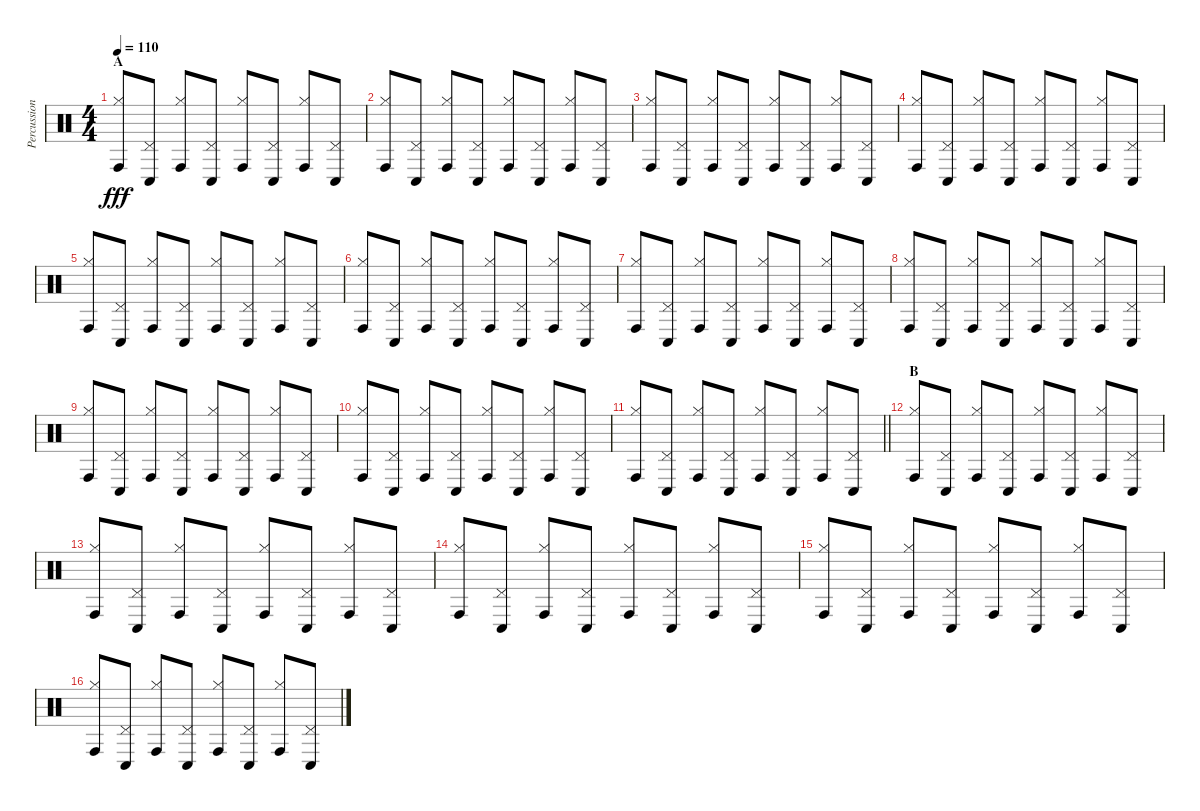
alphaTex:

\track ("Percussion" "Percussion") {instrument percussion}
\staff {score}
\articulation defaults
\ts (4 4)
\section ("" "A")
\tempo 110
\clef neutral
\ks c
("Hi-Hat (closed)" "Conga high (hit)").8{dy fff} ("Pedal Hi-Hat (hit)" "Conga low (hit)").8 ("Hi-Hat (closed)" "Conga high (hit)").8 ("Pedal Hi-Hat (hit)" "Conga low (hit)").8 ("Hi-Hat (closed)" "Conga high (hit)").8 ("Pedal Hi-Hat (hit)" "Conga low (hit)").8 ("Hi-Hat (closed)" "Conga high (hit)").8 ("Pedal Hi-Hat (hit)" "Conga low (hit)").8 |
("Hi-Hat (closed)" "Conga high (hit)").8 ("Pedal Hi-Hat (hit)" "Conga low (hit)").8 ("Hi-Hat (closed)" "Conga high (hit)").8 ("Pedal Hi-Hat (hit)" "Conga low (hit)").8 ("Hi-Hat (closed)" "Conga high (hit)").8 ("Pedal Hi-Hat (hit)" "Conga low (hit)").8 ("Hi-Hat (closed)" "Conga high (hit)").8 ("Pedal Hi-Hat (hit)" "Conga low (hit)").8 |
("Hi-Hat (closed)" "Conga high (hit)").8 ("Pedal Hi-Hat (hit)" "Conga low (hit)").8 ("Hi-Hat (closed)" "Conga high (hit)").8 ("Pedal Hi-Hat (hit)" "Conga low (hit)").8 ("Hi-Hat (closed)" "Conga high (hit)").8 ("Pedal Hi-Hat (hit)" "Conga low (hit)").8 ("Hi-Hat (closed)" "Conga high (hit)").8 ("Pedal Hi-Hat (hit)" "Conga low (hit)").8 |
("Hi-Hat (closed)" "Conga high (hit)").8 ("Pedal Hi-Hat (hit)" "Conga low (hit)").8 ("Hi-Hat (closed)" "Conga high (hit)").8 ("Pedal Hi-Hat (hit)" "Conga low (hit)").8 ("Hi-Hat (closed)" "Conga high (hit)").8 ("Pedal Hi-Hat (hit)" "Conga low (hit)").8 ("Hi-Hat (closed)" "Conga high (hit)").8 ("Pedal Hi-Hat (hit)" "Conga low (hit)").8 |
("Hi-Hat (closed)" "Conga high (hit)").8 ("Pedal Hi-Hat (hit)" "Conga low (hit)").8 ("Hi-Hat (closed)" "Conga high (hit)").8 ("Pedal Hi-Hat (hit)" "Conga low (hit)").8 ("Hi-Hat (closed)" "Conga high (hit)").8 ("Pedal Hi-Hat (hit)" "Conga low (hit)").8 ("Hi-Hat (closed)" "Conga high (hit)").8 ("Pedal Hi-Hat (hit)" "Conga low (hit)").8 |
("Hi-Hat (closed)" "Conga high (hit)").8 ("Pedal Hi-Hat (hit)" "Conga low (hit)").8 ("Hi-Hat (closed)" "Conga high (hit)").8 ("Pedal Hi-Hat (hit)" "Conga low (hit)").8 ("Hi-Hat (closed)" "Conga high (hit)").8 ("Pedal Hi-Hat (hit)" "Conga low (hit)").8 ("Hi-Hat (closed)" "Conga high (hit)").8 ("Pedal Hi-Hat (hit)" "Conga low (hit)").8 |
("Hi-Hat (closed)" "Conga high (hit)").8 ("Pedal Hi-Hat (hit)" "Conga low (hit)").8 ("Hi-Hat (closed)" "Conga high (hit)").8 ("Pedal Hi-Hat (hit)" "Conga low (hit)").8 ("Hi-Hat (closed)" "Conga high (hit)").8 ("Pedal Hi-Hat (hit)" "Conga low (hit)").8 ("Hi-Hat (closed)" "Conga high (hit)").8 ("Pedal Hi-Hat (hit)" "Conga low (hit)").8 |
("Hi-Hat (closed)" "Conga high (hit)").8 ("Pedal Hi-Hat (hit)" "Conga low (hit)").8 ("Hi-Hat (closed)" "Conga high (hit)").8 ("Pedal Hi-Hat (hit)" "Conga low (hit)").8 ("Hi-Hat (closed)" "Conga high (hit)").8 ("Pedal Hi-Hat (hit)" "Conga low (hit)").8 ("Hi-Hat (closed)" "Conga high (hit)").8 ("Pedal Hi-Hat (hit)" "Conga low (hit)").8 |
("Hi-Hat (closed)" "Conga high (hit)").8 ("Pedal Hi-Hat (hit)" "Conga low (hit)").8 ("Hi-Hat (closed)" "Conga high (hit)").8 ("Pedal Hi-Hat (hit)" "Conga low (hit)").8 ("Hi-Hat (closed)" "Conga high (hit)").8 ("Pedal Hi-Hat (hit)" "Conga low (hit)").8 ("Hi-Hat (closed)" "Conga high (hit)").8 ("Pedal Hi-Hat (hit)" "Conga low (hit)").8 |
("Hi-Hat (closed)" "Conga high (hit)").8 ("Pedal Hi-Hat (hit)" "Conga low (hit)").8 ("Hi-Hat (closed)" "Conga high (hit)").8 ("Pedal Hi-Hat (hit)" "Conga low (hit)").8 ("Hi-Hat (closed)" "Conga high (hit)").8 ("Pedal Hi-Hat (hit)" "Conga low (hit)").8 ("Hi-Hat (closed)" "Conga high (hit)").8 ("Pedal Hi-Hat (hit)" "Conga low (hit)").8 |
\barLineRight lightlight
("Hi-Hat (closed)" "Conga high (hit)").8 ("Pedal Hi-Hat (hit)" "Conga low (hit)").8 ("Hi-Hat (closed)" "Conga high (hit)").8 ("Pedal Hi-Hat (hit)" "Conga low (hit)").8 ("Hi-Hat (closed)" "Conga high (hit)").8 ("Pedal Hi-Hat (hit)" "Conga low (hit)").8 ("Hi-Hat (closed)" "Conga high (hit)").8 ("Pedal Hi-Hat (hit)" "Conga low (hit)").8 |
\section ("" "B")
("Hi-Hat (closed)" "Conga high (hit)").8 ("Pedal Hi-Hat (hit)" "Conga low (hit)").8 ("Hi-Hat (closed)" "Conga high (hit)").8 ("Pedal Hi-Hat (hit)" "Conga low (hit)").8 ("Hi-Hat (closed)" "Conga high (hit)").8 ("Pedal Hi-Hat (hit)" "Conga low (hit)").8 ("Hi-Hat (closed)" "Conga high (hit)").8 ("Pedal Hi-Hat (hit)" "Conga low (hit)").8 |
("Hi-Hat (closed)" "Conga high (hit)").8 ("Pedal Hi-Hat (hit)" "Conga low (hit)").8 ("Hi-Hat (closed)" "Conga high (hit)").8 ("Pedal Hi-Hat (hit)" "Conga low (hit)").8 ("Hi-Hat (closed)" "Conga high (hit)").8 ("Pedal Hi-Hat (hit)" "Conga low (hit)").8 ("Hi-Hat (closed)" "Conga high (hit)").8 ("Pedal Hi-Hat (hit)" "Conga low (hit)").8 |
("Hi-Hat (closed)" "Conga high (hit)").8 ("Pedal Hi-Hat (hit)" "Conga low (hit)").8 ("Hi-Hat (closed)" "Conga high (hit)").8 ("Pedal Hi-Hat (hit)" "Conga low (hit)").8 ("Hi-Hat (closed)" "Conga high (hit)").8 ("Pedal Hi-Hat (hit)" "Conga low (hit)").8 ("Hi-Hat (closed)" "Conga high (hit)").8 ("Pedal Hi-Hat (hit)" "Conga low (hit)").8 |
("Hi-Hat (closed)" "Conga high (hit)").8 ("Pedal Hi-Hat (hit)" "Conga low (hit)").8 ("Hi-Hat (closed)" "Conga high (hit)").8 ("Pedal Hi-Hat (hit)" "Conga low (hit)").8 ("Hi-Hat (closed)" "Conga high (hit)").8 ("Pedal Hi-Hat (hit)" "Conga low (hit)").8 ("Hi-Hat (closed)" "Conga high (hit)").8 ("Pedal Hi-Hat (hit)" "Conga low (hit)").8 |
("Hi-Hat (closed)" "Conga high (hit)").8 ("Pedal Hi-Hat (hit)" "Conga low (hit)").8 ("Hi-Hat (closed)" "Conga high (hit)").8 ("Pedal Hi-Hat (hit)" "Conga low (hit)").8 ("Hi-Hat (closed)" "Conga high (hit)").8 ("Pedal Hi-Hat (hit)" "Conga low (hit)").8 ("Hi-Hat (closed)" "Conga high (hit)").8 ("Pedal Hi-Hat (hit)" "Conga low (hit)").8
